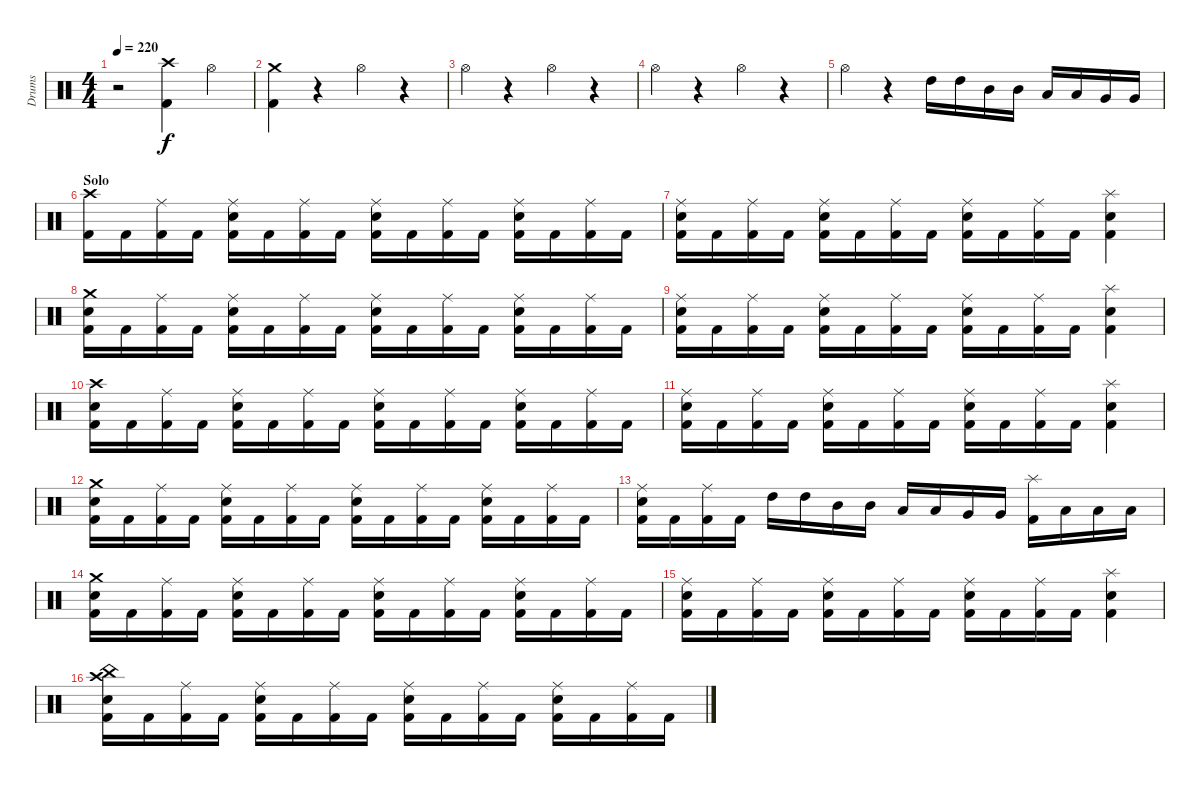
\track ("Drums" "Drums") {instrument percussion}
\staff {score}
\articulation defaults
\ts (4 4)
\tempo 220
\clef neutral
\ks c
r.2{dy f} ("Crash high (hit)" "Kick (hit) 2").4 "Hi-Hat (open)".4 |
("Crash medium (hit)" "Kick (hit) 2").4 r.4 "Hi-Hat (open)".4 r.4 |
"Hi-Hat (open)".4 r.4 "Hi-Hat (open)".4 r.4 |
"Hi-Hat (open)".4 r.4 "Hi-Hat (open)".4 r.4 |
"Hi-Hat (open)".4 r.4 "High Tom (hit)".16 "High Tom (hit)".16 "Mid Tom (hit)".16 "Mid Tom (hit)".16 "Low Tom (hit)".16 "Low Tom (hit)".16 "Very Low Tom (hit)".16 "Very Low Tom (hit)".16 |
\section ("" "Solo")
("Crash high (hit)" "Kick (hit) 2").16 "Kick (hit) 2".16 ("Ride (middle)" "Kick (hit) 2").16 "Kick (hit) 2".16 ("Ride (middle)" "Electric Snare (hit)" "Kick (hit) 2").16 "Kick (hit) 2".16 ("Ride (middle)" "Kick (hit) 2").16 "Kick (hit) 2".16 ("Ride (middle)" "Electric Snare (hit)" "Kick (hit) 2").16 "Kick (hit) 2".16 ("Ride (middle)" "Kick (hit) 2").16 "Kick (hit) 2".16 ("Ride (middle)" "Electric Snare (hit)" "Kick (hit) 2").16 "Kick (hit) 2".16 ("Ride (middle)" "Kick (hit) 2").16 "Kick (hit) 2".16 |
("Ride (middle)" "Electric Snare (hit)" "Kick (hit) 2").16 "Kick (hit) 2".16 ("Ride (middle)" "Kick (hit) 2").16 "Kick (hit) 2".16 ("Ride (middle)" "Electric Snare (hit)" "Kick (hit) 2").16 "Kick (hit) 2".16 ("Ride (middle)" "Kick (hit) 2").16 "Kick (hit) 2".16 ("Ride (middle)" "Electric Snare (hit)" "Kick (hit) 2").16 "Kick (hit) 2".16 ("Ride (middle)" "Kick (hit) 2").16 "Kick (hit) 2".16 ("Splash (hit)" "Electric Snare (hit)" "Kick (hit) 2").4 |
("Crash medium (hit)" "Electric Snare (hit)" "Kick (hit) 2").16 "Kick (hit) 2".16 ("Ride (middle)" "Kick (hit) 2").16 "Kick (hit) 2".16 ("Ride (middle)" "Electric Snare (hit)" "Kick (hit) 2").16 "Kick (hit) 2".16 ("Ride (middle)" "Kick (hit) 2").16 "Kick (hit) 2".16 ("Ride (middle)" "Electric Snare (hit)" "Kick (hit) 2").16 "Kick (hit) 2".16 ("Ride (middle)" "Kick (hit) 2").16 "Kick (hit) 2".16 ("Ride (middle)" "Electric Snare (hit)" "Kick (hit) 2").16 "Kick (hit) 2".16 ("Ride (middle)" "Kick (hit) 2").16 "Kick (hit) 2".16 |
("Ride (middle)" "Electric Snare (hit)" "Kick (hit) 2").16 "Kick (hit) 2".16 ("Ride (middle)" "Kick (hit) 2").16 "Kick (hit) 2".16 ("Ride (middle)" "Electric Snare (hit)" "Kick (hit) 2").16 "Kick (hit) 2".16 ("Ride (middle)" "Kick (hit) 2").16 "Kick (hit) 2".16 ("Ride (middle)" "Electric Snare (hit)" "Kick (hit) 2").16 "Kick (hit) 2".16 ("Ride (middle)" "Kick (hit) 2").16 "Kick (hit) 2".16 ("Splash (hit)" "Electric Snare (hit)" "Kick (hit) 2").4 |
("Crash high (hit)" "Electric Snare (hit)" "Kick (hit) 2").16 "Kick (hit) 2".16 ("Ride (middle)" "Kick (hit) 2").16 "Kick (hit) 2".16 ("Ride (middle)" "Electric Snare (hit)" "Kick (hit) 2").16 "Kick (hit) 2".16 ("Ride (middle)" "Kick (hit) 2").16 "Kick (hit) 2".16 ("Ride (middle)" "Electric Snare (hit)" "Kick (hit) 2").16 "Kick (hit) 2".16 ("Ride (middle)" "Kick (hit) 2").16 "Kick (hit) 2".16 ("Ride (middle)" "Electric Snare (hit)" "Kick (hit) 2").16 "Kick (hit) 2".16 ("Ride (middle)" "Kick (hit) 2").16 "Kick (hit) 2".16 |
("Ride (middle)" "Electric Snare (hit)" "Kick (hit) 2").16 "Kick (hit) 2".16 ("Ride (middle)" "Kick (hit) 2").16 "Kick (hit) 2".16 ("Ride (middle)" "Electric Snare (hit)" "Kick (hit) 2").16 "Kick (hit) 2".16 ("Ride (middle)" "Kick (hit) 2").16 "Kick (hit) 2".16 ("Ride (middle)" "Electric Snare (hit)" "Kick (hit) 2").16 "Kick (hit) 2".16 ("Ride (middle)" "Kick (hit) 2").16 "Kick (hit) 2".16 ("Splash (hit)" "Electric Snare (hit)" "Kick (hit) 2").4 |
("Crash medium (hit)" "Electric Snare (hit)" "Kick (hit) 2").16 "Kick (hit) 2".16 ("Ride (middle)" "Kick (hit) 2").16 "Kick (hit) 2".16 ("Ride (middle)" "Electric Snare (hit)" "Kick (hit) 2").16 "Kick (hit) 2".16 ("Ride (middle)" "Kick (hit) 2").16 "Kick (hit) 2".16 ("Ride (middle)" "Electric Snare (hit)" "Kick (hit) 2").16 "Kick (hit) 2".16 ("Ride (middle)" "Kick (hit) 2").16 "Kick (hit) 2".16 ("Ride (middle)" "Electric Snare (hit)" "Kick (hit) 2").16 "Kick (hit) 2".16 ("Ride (middle)" "Kick (hit) 2").16 "Kick (hit) 2".16 |
("Ride (middle)" "Electric Snare (hit)" "Kick (hit) 2").16 "Kick (hit) 2".16 ("Ride (middle)" "Kick (hit) 2").16 "Kick (hit) 2".16 "High Tom (hit)".16 "High Tom (hit)".16 "Mid Tom (hit)".16 "Mid Tom (hit)".16 "Low Tom (hit)".16 "Low Tom (hit)".16 "Very Low Tom (hit)".16 "Very Low Tom (hit)".16 ("Splash (hit)" "Kick (hit) 2").16 "Low Floor Tom (hit)".16 "Low Floor Tom (hit)".16 "Low Floor Tom (hit)".16 |
("Crash medium (hit)" "Electric Snare (hit)" "Kick (hit) 2").16 "Kick (hit) 2".16 ("Ride (middle)" "Kick (hit) 2").16 "Kick (hit) 2".16 ("Ride (middle)" "Electric Snare (hit)" "Kick (hit) 2").16 "Kick (hit) 2".16 ("Ride (middle)" "Kick (hit) 2").16 "Kick (hit) 2".16 ("Ride (middle)" "Electric Snare (hit)" "Kick (hit) 2").16 "Kick (hit) 2".16 ("Ride (middle)" "Kick (hit) 2").16 "Kick (hit) 2".16 ("Ride (middle)" "Electric Snare (hit)" "Kick (hit) 2").16 "Kick (hit) 2".16 ("Ride (middle)" "Kick (hit) 2").16 "Kick (hit) 2".16 |
("Ride (middle)" "Electric Snare (hit)" "Kick (hit) 2").16 "Kick (hit) 2".16 ("Ride (middle)" "Kick (hit) 2").16 "Kick (hit) 2".16 ("Ride (middle)" "Electric Snare (hit)" "Kick (hit) 2").16 "Kick (hit) 2".16 ("Ride (middle)" "Kick (hit) 2").16 "Kick (hit) 2".16 ("Ride (middle)" "Electric Snare (hit)" "Kick (hit) 2").16 "Kick (hit) 2".16 ("Ride (middle)" "Kick (hit) 2").16 "Kick (hit) 2".16 ("Splash (hit)" "Electric Snare (hit)" "Kick (hit) 2").4 |
("China (hit)" "Crash high (hit)" "Electric Snare (hit)" "Kick (hit) 2").16 "Kick (hit) 2".16 ("Ride (middle)" "Kick (hit) 2").16 "Kick (hit) 2".16 ("Ride (middle)" "Electric Snare (hit)" "Kick (hit) 2").16 "Kick (hit) 2".16 ("Ride (middle)" "Kick (hit) 2").16 "Kick (hit) 2".16 ("Ride (middle)" "Electric Snare (hit)" "Kick (hit) 2").16 "Kick (hit) 2".16 ("Ride (middle)" "Kick (hit) 2").16 "Kick (hit) 2".16 ("Ride (middle)" "Electric Snare (hit)" "Kick (hit) 2").16 "Kick (hit) 2".16 ("Ride (middle)" "Kick (hit) 2").16 "Kick (hit) 2".16
